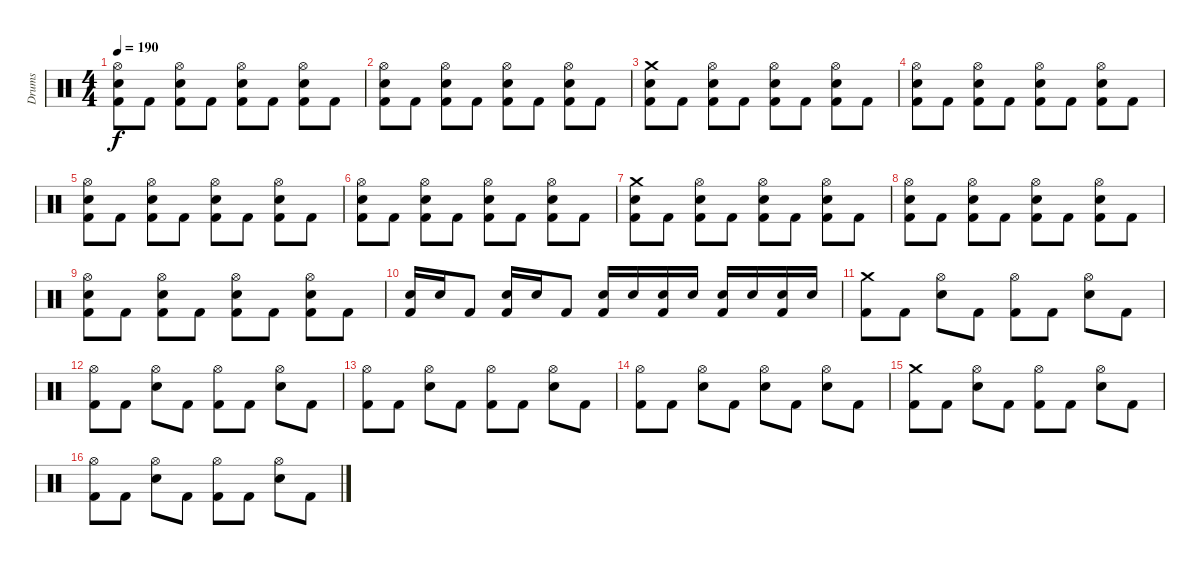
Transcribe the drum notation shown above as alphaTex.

\track ("Drums" "Drums") {instrument percussion}
\staff {score}
\articulation defaults
\ts (4 4)
\tempo 190
\clef neutral
\ks c
("Hi-Hat (open)" "Kick (hit) 2" "Snare (hit) 2").8{dy f} "Kick (hit) 2".8 ("Hi-Hat (open)" "Kick (hit) 2" "Snare (hit) 2").8 "Kick (hit) 2".8 ("Hi-Hat (open)" "Kick (hit) 2" "Snare (hit) 2").8 "Kick (hit) 2".8 ("Hi-Hat (open)" "Kick (hit) 2" "Snare (hit) 2").8 "Kick (hit) 2".8 |
("Hi-Hat (open)" "Kick (hit) 2" "Snare (hit) 2").8 "Kick (hit) 2".8 ("Hi-Hat (open)" "Kick (hit) 2" "Snare (hit) 2").8 "Kick (hit) 2".8 ("Hi-Hat (open)" "Kick (hit) 2" "Snare (hit) 2").8 "Kick (hit) 2".8 ("Hi-Hat (open)" "Kick (hit) 2" "Snare (hit) 2").8 "Kick (hit) 2".8 |
("Crash medium (hit)" "Kick (hit) 2" "Snare (hit) 2").8 "Kick (hit) 2".8 ("Hi-Hat (open)" "Kick (hit) 2" "Snare (hit) 2").8 "Kick (hit) 2".8 ("Hi-Hat (open)" "Kick (hit) 2" "Snare (hit) 2").8 "Kick (hit) 2".8 ("Hi-Hat (open)" "Kick (hit) 2" "Snare (hit) 2").8 "Kick (hit) 2".8 |
("Hi-Hat (open)" "Kick (hit) 2" "Snare (hit) 2").8 "Kick (hit) 2".8 ("Hi-Hat (open)" "Kick (hit) 2" "Snare (hit) 2").8 "Kick (hit) 2".8 ("Hi-Hat (open)" "Kick (hit) 2" "Snare (hit) 2").8 "Kick (hit) 2".8 ("Hi-Hat (open)" "Kick (hit) 2" "Snare (hit) 2").8 "Kick (hit) 2".8 |
("Hi-Hat (open)" "Kick (hit) 2" "Snare (hit) 2").8 "Kick (hit) 2".8 ("Hi-Hat (open)" "Kick (hit) 2" "Snare (hit) 2").8 "Kick (hit) 2".8 ("Hi-Hat (open)" "Kick (hit) 2" "Snare (hit) 2").8 "Kick (hit) 2".8 ("Hi-Hat (open)" "Kick (hit) 2" "Snare (hit) 2").8 "Kick (hit) 2".8 |
("Hi-Hat (open)" "Kick (hit) 2" "Snare (hit) 2").8 "Kick (hit) 2".8 ("Hi-Hat (open)" "Kick (hit) 2" "Snare (hit) 2").8 "Kick (hit) 2".8 ("Hi-Hat (open)" "Kick (hit) 2" "Snare (hit) 2").8 "Kick (hit) 2".8 ("Hi-Hat (open)" "Kick (hit) 2" "Snare (hit) 2").8 "Kick (hit) 2".8 |
("Crash medium (hit)" "Kick (hit) 2" "Snare (hit) 2").8 "Kick (hit) 2".8 ("Hi-Hat (open)" "Kick (hit) 2" "Snare (hit) 2").8 "Kick (hit) 2".8 ("Hi-Hat (open)" "Kick (hit) 2" "Snare (hit) 2").8 "Kick (hit) 2".8 ("Hi-Hat (open)" "Kick (hit) 2" "Snare (hit) 2").8 "Kick (hit) 2".8 |
("Hi-Hat (open)" "Kick (hit) 2" "Snare (hit) 2").8 "Kick (hit) 2".8 ("Hi-Hat (open)" "Kick (hit) 2" "Snare (hit) 2").8 "Kick (hit) 2".8 ("Hi-Hat (open)" "Kick (hit) 2" "Snare (hit) 2").8 "Kick (hit) 2".8 ("Hi-Hat (open)" "Kick (hit) 2" "Snare (hit) 2").8 "Kick (hit) 2".8 |
("Hi-Hat (open)" "Kick (hit) 2" "Snare (hit) 2").8 "Kick (hit) 2".8 ("Hi-Hat (open)" "Kick (hit) 2" "Snare (hit) 2").8 "Kick (hit) 2".8 ("Hi-Hat (open)" "Kick (hit) 2" "Snare (hit) 2").8 "Kick (hit) 2".8 ("Hi-Hat (open)" "Kick (hit) 2" "Snare (hit) 2").8 "Kick (hit) 2".8 |
("Kick (hit) 2" "Snare (hit) 2").16 "Snare (hit) 2".16 "Kick (hit) 2".8 ("Kick (hit) 2" "Snare (hit) 2").16 "Snare (hit) 2".16 "Kick (hit) 2".8 ("Kick (hit) 2" "Snare (hit) 2").16 "Snare (hit) 2".16 ("Kick (hit) 2" "Snare (hit) 2").16 "Snare (hit) 2".16 ("Kick (hit) 2" "Snare (hit) 2").16 "Snare (hit) 2".16 ("Kick (hit) 2" "Snare (hit) 2").16 "Snare (hit) 2".16 |
("Crash medium (hit)" "Kick (hit) 2").8 "Kick (hit) 2".8 ("Hi-Hat (open)" "Snare (hit) 2").8 "Kick (hit) 2".8 ("Hi-Hat (open)" "Kick (hit) 2").8 "Kick (hit) 2".8 ("Hi-Hat (open)" "Snare (hit) 2").8 "Kick (hit) 2".8 |
("Hi-Hat (open)" "Kick (hit) 2").8 "Kick (hit) 2".8 ("Hi-Hat (open)" "Snare (hit) 2").8 "Kick (hit) 2".8 ("Hi-Hat (open)" "Kick (hit) 2").8 "Kick (hit) 2".8 ("Hi-Hat (open)" "Snare (hit) 2").8 "Kick (hit) 2".8 |
("Hi-Hat (open)" "Kick (hit) 2").8 "Kick (hit) 2".8 ("Hi-Hat (open)" "Snare (hit) 2").8 "Kick (hit) 2".8 ("Hi-Hat (open)" "Kick (hit) 2").8 "Kick (hit) 2".8 ("Hi-Hat (open)" "Snare (hit) 2").8 "Kick (hit) 2".8 |
("Hi-Hat (open)" "Kick (hit) 2").8 "Kick (hit) 2".8 ("Hi-Hat (open)" "Snare (hit) 2").8 "Kick (hit) 2".8 ("Hi-Hat (open)" "Snare (hit) 2").8 "Kick (hit) 2".8 ("Hi-Hat (open)" "Snare (hit) 2").8 "Kick (hit) 2".8 |
("Crash medium (hit)" "Kick (hit) 2").8 "Kick (hit) 2".8 ("Hi-Hat (open)" "Snare (hit) 2").8 "Kick (hit) 2".8 ("Hi-Hat (open)" "Kick (hit) 2").8 "Kick (hit) 2".8 ("Hi-Hat (open)" "Snare (hit) 2").8 "Kick (hit) 2".8 |
("Hi-Hat (open)" "Kick (hit) 2").8 "Kick (hit) 2".8 ("Hi-Hat (open)" "Snare (hit) 2").8 "Kick (hit) 2".8 ("Hi-Hat (open)" "Kick (hit) 2").8 "Kick (hit) 2".8 ("Hi-Hat (open)" "Snare (hit) 2").8 "Kick (hit) 2".8
